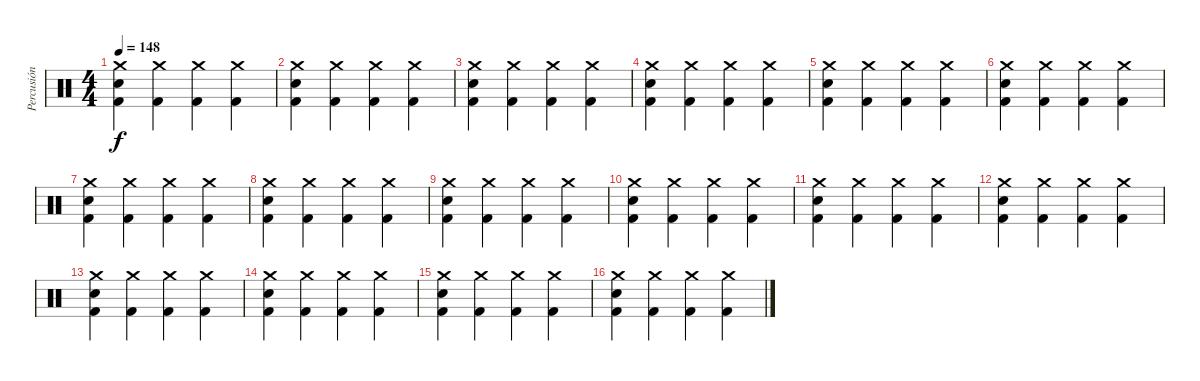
\track ("Percusión" "Percusión") {instrument percussion}
\staff {score}
\articulation defaults
\ts (4 4)
\tempo 148
\clef neutral
\ks c
("Crash medium (hit)" "Snare (hit) 2" "Kick (hit) 2").4{dy f} ("Crash medium (hit)" "Kick (hit) 2").4 ("Crash medium (hit)" "Kick (hit) 2").4 ("Crash medium (hit)" "Kick (hit) 2").4 |
("Crash medium (hit)" "Snare (hit) 2" "Kick (hit) 2").4 ("Crash medium (hit)" "Kick (hit) 2").4 ("Crash medium (hit)" "Kick (hit) 2").4 ("Crash medium (hit)" "Kick (hit) 2").4 |
("Crash medium (hit)" "Snare (hit) 2" "Kick (hit) 2").4 ("Crash medium (hit)" "Kick (hit) 2").4 ("Crash medium (hit)" "Kick (hit) 2").4 ("Crash medium (hit)" "Kick (hit) 2").4 |
("Crash medium (hit)" "Snare (hit) 2" "Kick (hit) 2").4 ("Crash medium (hit)" "Kick (hit) 2").4 ("Crash medium (hit)" "Kick (hit) 2").4 ("Crash medium (hit)" "Kick (hit) 2").4 |
("Crash medium (hit)" "Snare (hit) 2" "Kick (hit) 2").4 ("Crash medium (hit)" "Kick (hit) 2").4 ("Crash medium (hit)" "Kick (hit) 2").4 ("Crash medium (hit)" "Kick (hit) 2").4 |
("Crash medium (hit)" "Snare (hit) 2" "Kick (hit) 2").4 ("Crash medium (hit)" "Kick (hit) 2").4 ("Crash medium (hit)" "Kick (hit) 2").4 ("Crash medium (hit)" "Kick (hit) 2").4 |
("Crash medium (hit)" "Snare (hit) 2" "Kick (hit) 2").4 ("Crash medium (hit)" "Kick (hit) 2").4 ("Crash medium (hit)" "Kick (hit) 2").4 ("Crash medium (hit)" "Kick (hit) 2").4 |
("Crash medium (hit)" "Snare (hit) 2" "Kick (hit) 2").4 ("Crash medium (hit)" "Kick (hit) 2").4 ("Crash medium (hit)" "Kick (hit) 2").4 ("Crash medium (hit)" "Kick (hit) 2").4 |
("Crash medium (hit)" "Snare (hit) 2" "Kick (hit) 2").4 ("Crash medium (hit)" "Kick (hit) 2").4 ("Crash medium (hit)" "Kick (hit) 2").4 ("Crash medium (hit)" "Kick (hit) 2").4 |
("Crash medium (hit)" "Snare (hit) 2" "Kick (hit) 2").4 ("Crash medium (hit)" "Kick (hit) 2").4 ("Crash medium (hit)" "Kick (hit) 2").4 ("Crash medium (hit)" "Kick (hit) 2").4 |
("Crash medium (hit)" "Snare (hit) 2" "Kick (hit) 2").4 ("Crash medium (hit)" "Kick (hit) 2").4 ("Crash medium (hit)" "Kick (hit) 2").4 ("Crash medium (hit)" "Kick (hit) 2").4 |
("Crash medium (hit)" "Snare (hit) 2" "Kick (hit) 2").4 ("Crash medium (hit)" "Kick (hit) 2").4 ("Crash medium (hit)" "Kick (hit) 2").4 ("Crash medium (hit)" "Kick (hit) 2").4 |
("Crash medium (hit)" "Snare (hit) 2" "Kick (hit) 2").4 ("Crash medium (hit)" "Kick (hit) 2").4 ("Crash medium (hit)" "Kick (hit) 2").4 ("Crash medium (hit)" "Kick (hit) 2").4 |
("Crash medium (hit)" "Snare (hit) 2" "Kick (hit) 2").4 ("Crash medium (hit)" "Kick (hit) 2").4 ("Crash medium (hit)" "Kick (hit) 2").4 ("Crash medium (hit)" "Kick (hit) 2").4 |
("Crash medium (hit)" "Snare (hit) 2" "Kick (hit) 2").4 ("Crash medium (hit)" "Kick (hit) 2").4 ("Crash medium (hit)" "Kick (hit) 2").4 ("Crash medium (hit)" "Kick (hit) 2").4 |
("Crash medium (hit)" "Snare (hit) 2" "Kick (hit) 2").4 ("Crash medium (hit)" "Kick (hit) 2").4 ("Crash medium (hit)" "Kick (hit) 2").4 ("Crash medium (hit)" "Kick (hit) 2").4
